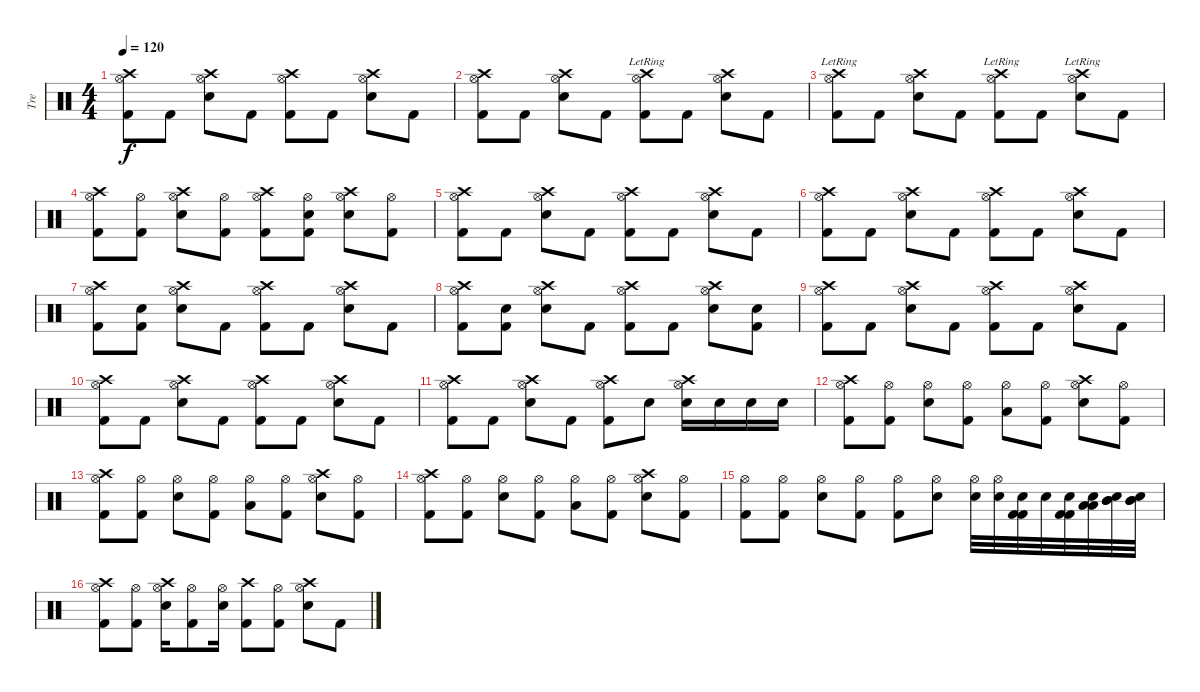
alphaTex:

\track ("Tre" "Tre") {instrument percussion}
\staff {score}
\articulation defaults
\ts (4 4)
\tempo 120
\clef neutral
\ks c
("Crash high (hit)" "Kick (hit) 2" "Hi-Hat (open)").8{dy f} "Kick (hit) 2".8 ("Crash high (hit)" "Electric Snare (hit)" "Hi-Hat (open)").8 "Kick (hit) 2".8 ("Crash high (hit)" "Kick (hit) 2" "Hi-Hat (open)").8 "Kick (hit) 2".8 ("Crash high (hit)" "Electric Snare (hit)" "Hi-Hat (open)").8 "Kick (hit) 2".8 |
("Crash high (hit)" "Kick (hit) 2" "Hi-Hat (open)").8 "Kick (hit) 2".8 ("Crash high (hit)" "Electric Snare (hit)" "Hi-Hat (open)").8 "Kick (hit) 2".8 ("Crash high (hit)" "Kick (hit) 2" "Hi-Hat (open)"{lr}).8 "Kick (hit) 2".8 ("Crash high (hit)" "Electric Snare (hit)" "Hi-Hat (open)").8 "Kick (hit) 2".8 |
("Crash high (hit)" "Kick (hit) 2" "Hi-Hat (open)"{lr}).8 "Kick (hit) 2".8 ("Crash high (hit)" "Electric Snare (hit)" "Hi-Hat (open)").8 "Kick (hit) 2".8 ("Crash high (hit)" "Kick (hit) 2" "Hi-Hat (open)"{lr}).8 "Kick (hit) 2".8 ("Crash high (hit)" "Electric Snare (hit)" "Hi-Hat (open)"{lr}).8 "Kick (hit) 2".8 |
("Hi-Hat (open)" "Kick (hit) 2" "Crash high (hit)").8 ("Hi-Hat (open)" "Kick (hit) 2").8 ("Hi-Hat (open)" "Electric Snare (hit)" "Crash high (hit)").8 ("Hi-Hat (open)" "Kick (hit) 2").8 ("Hi-Hat (open)" "Kick (hit) 2" "Crash high (hit)").8 ("Hi-Hat (open)" "Kick (hit) 2" "Snare (hit)").8 ("Hi-Hat (open)" "Electric Snare (hit)" "Crash high (hit)").8 ("Hi-Hat (open)" "Kick (hit) 2").8 |
("Hi-Hat (open)" "Kick (hit) 2" "Crash high (hit)").8 "Kick (hit) 2".8 ("Hi-Hat (open)" "Electric Snare (hit)" "Crash high (hit)").8 "Kick (hit) 2".8 ("Hi-Hat (open)" "Kick (hit) 2" "Crash high (hit)").8 "Kick (hit) 2".8 ("Hi-Hat (open)" "Electric Snare (hit)" "Crash high (hit)").8 "Kick (hit) 2".8 |
("Hi-Hat (open)" "Kick (hit) 2" "Crash high (hit)").8 "Kick (hit) 2".8 ("Hi-Hat (open)" "Electric Snare (hit)" "Crash high (hit)").8 "Kick (hit) 2".8 ("Hi-Hat (open)" "Kick (hit) 2" "Crash high (hit)").8 "Kick (hit) 2".8 ("Hi-Hat (open)" "Electric Snare (hit)" "Crash high (hit)").8 "Kick (hit) 2".8 |
("Hi-Hat (open)" "Kick (hit) 2" "Crash high (hit)").8 ("Snare (hit)" "Kick (hit) 2").8 ("Hi-Hat (open)" "Electric Snare (hit)" "Crash high (hit)").8 "Kick (hit) 2".8 ("Hi-Hat (open)" "Kick (hit) 2" "Crash high (hit)").8 "Kick (hit) 2".8 ("Hi-Hat (open)" "Electric Snare (hit)" "Crash high (hit)").8 "Kick (hit) 2".8 |
("Hi-Hat (open)" "Kick (hit) 2" "Crash high (hit)").8 ("Kick (hit) 2" "Snare (hit)").8 ("Hi-Hat (open)" "Electric Snare (hit)" "Crash high (hit)").8 "Kick (hit) 2".8 ("Hi-Hat (open)" "Kick (hit) 2" "Crash high (hit)").8 "Kick (hit) 2".8 ("Hi-Hat (open)" "Electric Snare (hit)" "Crash high (hit)").8 ("Snare (hit)" "Kick (hit) 2").8 |
("Hi-Hat (open)" "Kick (hit) 2" "Crash high (hit)").8 "Kick (hit) 2".8 ("Hi-Hat (open)" "Electric Snare (hit)" "Crash high (hit)").8 "Kick (hit) 2".8 ("Hi-Hat (open)" "Kick (hit) 2" "Crash high (hit)").8 "Kick (hit) 2".8 ("Hi-Hat (open)" "Electric Snare (hit)" "Crash high (hit)").8 "Kick (hit) 2".8 |
("Hi-Hat (open)" "Kick (hit) 2" "Crash high (hit)").8 "Kick (hit) 2".8 ("Hi-Hat (open)" "Electric Snare (hit)" "Crash high (hit)").8 "Kick (hit) 2".8 ("Hi-Hat (open)" "Kick (hit) 2" "Crash high (hit)").8 "Kick (hit) 2".8 ("Hi-Hat (open)" "Electric Snare (hit)" "Crash high (hit)").8 "Kick (hit) 2".8 |
("Hi-Hat (open)" "Kick (hit) 2" "Crash high (hit)").8 "Kick (hit) 2".8 ("Hi-Hat (open)" "Electric Snare (hit)" "Crash high (hit)").8 "Kick (hit) 2".8 ("Hi-Hat (open)" "Kick (hit) 2" "Crash high (hit)").8 "Electric Snare (hit)".8 ("Hi-Hat (open)" "Electric Snare (hit)" "Crash high (hit)").16 "Electric Snare (hit)".16 "Electric Snare (hit)".16 "Electric Snare (hit)".16 |
("Hi-Hat (open)" "Kick (hit) 2" "Crash high (hit)").8 ("Hi-Hat (open)" "Kick (hit) 2").8 ("Hi-Hat (open)" "Electric Snare (hit)").8 ("Hi-Hat (open)" "Kick (hit) 2").8 ("Hi-Hat (open)" "Low Tom (hit)").8 ("Hi-Hat (open)" "Kick (hit) 2").8 ("Hi-Hat (open)" "Electric Snare (hit)" "Crash high (hit)").8 ("Hi-Hat (open)" "Kick (hit) 2").8 |
("Hi-Hat (open)" "Kick (hit) 2" "Crash high (hit)").8 ("Hi-Hat (open)" "Kick (hit) 2").8 ("Hi-Hat (open)" "Electric Snare (hit)").8 ("Hi-Hat (open)" "Kick (hit) 2").8 ("Hi-Hat (open)" "Low Tom (hit)").8 ("Hi-Hat (open)" "Kick (hit) 2").8 ("Hi-Hat (open)" "Electric Snare (hit)" "Crash high (hit)").8 ("Hi-Hat (open)" "Kick (hit) 2").8 |
("Hi-Hat (open)" "Kick (hit) 2" "Crash high (hit)").8 ("Hi-Hat (open)" "Kick (hit) 2").8 ("Hi-Hat (open)" "Electric Snare (hit)").8 ("Hi-Hat (open)" "Kick (hit) 2").8 ("Hi-Hat (open)" "Low Tom (hit)").8 ("Hi-Hat (open)" "Kick (hit) 2").8 ("Hi-Hat (open)" "Electric Snare (hit)" "Crash high (hit)").8 ("Hi-Hat (open)" "Kick (hit) 2").8 |
("Hi-Hat (open)" "Kick (hit) 2").8 ("Hi-Hat (open)" "Kick (hit) 2").8 ("Hi-Hat (open)" "Electric Snare (hit)").8 ("Hi-Hat (open)" "Kick (hit) 2").8 ("Hi-Hat (open)" "Kick (hit) 2").8 ("Hi-Hat (open)" "Electric Snare (hit)").8 ("Hi-Hat (open)" "Electric Snare (hit)").32 ("Hi-Hat (open)" "Electric Snare (hit)").32 ("Electric Snare (hit)" "Kick (hit) 2" "Kick (hit) 2").32 "Electric Snare (hit)".32 ("Electric Snare (hit)" "Kick (hit) 2" "Kick (hit) 2").32 ("Electric Snare (hit)" "Low Tom (hit)" "Low Tom (hit)").32 ("Electric Snare (hit)" "Mid Tom (hit)" "Mid Tom (hit)").32 ("Electric Snare (hit)" "Mid Tom (hit)" "Mid Tom (hit)").32 |
("Hi-Hat (open)" "Kick (hit) 2" "Crash high (hit)").8 ("Hi-Hat (open)" "Kick (hit) 2").8 ("Hi-Hat (open)" "Electric Snare (hit)" "Crash high (hit)").16 ("Hi-Hat (open)" "Kick (hit) 2").8 ("Hi-Hat (open)" "Electric Snare (hit)").16 ("Kick (hit) 2" "Crash high (hit)").8 ("Hi-Hat (open)" "Kick (hit) 2").8 ("Hi-Hat (open)" "Electric Snare (hit)" "Crash high (hit)").8 "Kick (hit) 2".8
